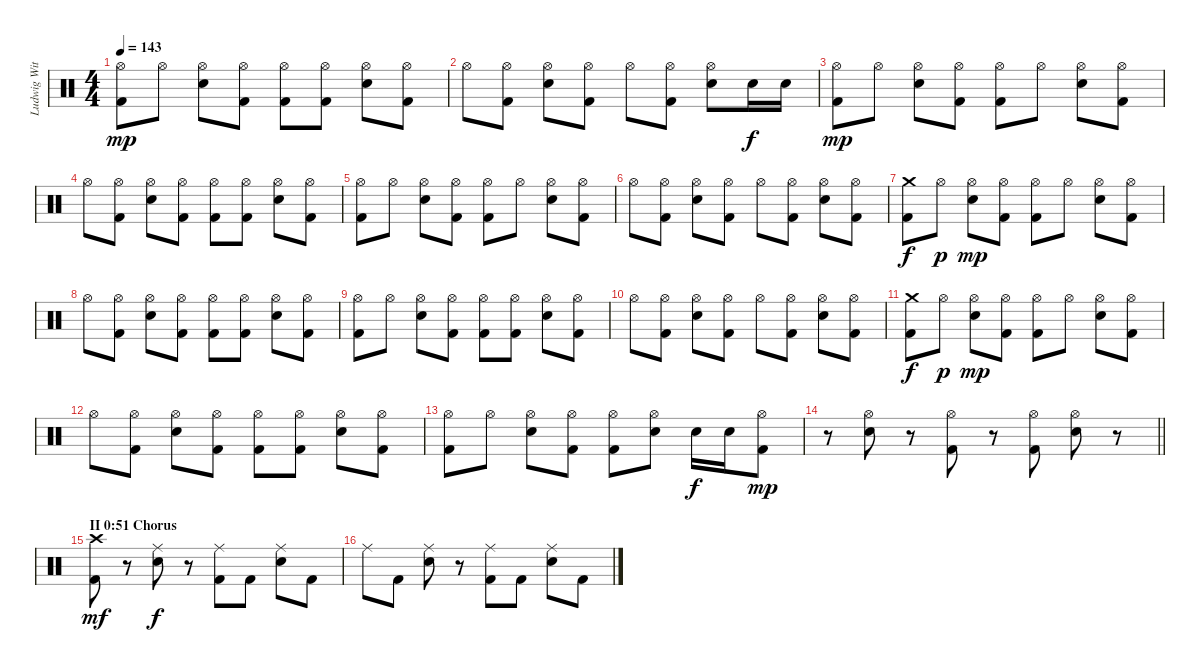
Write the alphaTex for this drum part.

\track ("Ludwig Witt (Drums)" "Ludwig Wit") {instrument percussion}
\staff {score}
\articulation defaults
\ts (4 4)
\tempo 143
\clef neutral
\ks c
("Hi-Hat (open)" "Kick (hit) 2").8{dy mp} "Hi-Hat (open)".8 ("Hi-Hat (open)" "Electric Snare (hit)").8 ("Hi-Hat (open)" "Kick (hit) 2").8 ("Hi-Hat (open)" "Kick (hit) 2").8 ("Hi-Hat (open)" "Kick (hit) 2").8 ("Hi-Hat (open)" "Electric Snare (hit)").8 ("Hi-Hat (open)" "Kick (hit) 2").8 |
"Hi-Hat (open)".8 ("Hi-Hat (open)" "Kick (hit) 2").8 ("Hi-Hat (open)" "Electric Snare (hit)").8 ("Hi-Hat (open)" "Kick (hit) 2").8 "Hi-Hat (open)".8 ("Hi-Hat (open)" "Kick (hit) 2").8 ("Hi-Hat (open)" "Electric Snare (hit)").8 "Electric Snare (hit)".16{dy f} "Electric Snare (hit)".16 |
("Hi-Hat (open)" "Kick (hit) 2").8{dy mp} "Hi-Hat (open)".8 ("Hi-Hat (open)" "Electric Snare (hit)").8 ("Hi-Hat (open)" "Kick (hit) 2").8 ("Hi-Hat (open)" "Kick (hit) 2").8 "Hi-Hat (open)".8 ("Hi-Hat (open)" "Electric Snare (hit)").8 ("Hi-Hat (open)" "Kick (hit) 2").8 |
"Hi-Hat (open)".8 ("Hi-Hat (open)" "Kick (hit) 2").8 ("Hi-Hat (open)" "Electric Snare (hit)").8 ("Hi-Hat (open)" "Kick (hit) 2").8 ("Hi-Hat (open)" "Kick (hit) 2").8 ("Hi-Hat (open)" "Kick (hit) 2").8 ("Hi-Hat (open)" "Electric Snare (hit)").8 ("Hi-Hat (open)" "Kick (hit) 2").8 |
("Hi-Hat (open)" "Kick (hit) 2").8 "Hi-Hat (open)".8 ("Hi-Hat (open)" "Electric Snare (hit)").8 ("Hi-Hat (open)" "Kick (hit) 2").8 ("Hi-Hat (open)" "Kick (hit) 2").8 "Hi-Hat (open)".8 ("Hi-Hat (open)" "Electric Snare (hit)").8 ("Hi-Hat (open)" "Kick (hit) 2").8 |
"Hi-Hat (open)".8 ("Hi-Hat (open)" "Kick (hit) 2").8 ("Hi-Hat (open)" "Electric Snare (hit)").8 ("Hi-Hat (open)" "Kick (hit) 2").8 "Hi-Hat (open)".8 ("Hi-Hat (open)" "Kick (hit) 2").8 ("Hi-Hat (open)" "Electric Snare (hit)").8 ("Hi-Hat (open)" "Kick (hit) 2").8 |
("Crash medium (hit)" "Kick (hit) 2").8{dy f} "Hi-Hat (open)".8{dy p} ("Hi-Hat (open)" "Electric Snare (hit)").8{dy mp} ("Hi-Hat (open)" "Kick (hit) 2").8 ("Hi-Hat (open)" "Kick (hit) 2").8 "Hi-Hat (open)".8 ("Hi-Hat (open)" "Electric Snare (hit)").8 ("Hi-Hat (open)" "Kick (hit) 2").8 |
"Hi-Hat (open)".8 ("Hi-Hat (open)" "Kick (hit) 2").8 ("Hi-Hat (open)" "Electric Snare (hit)").8 ("Hi-Hat (open)" "Kick (hit) 2").8 ("Hi-Hat (open)" "Kick (hit) 2").8 ("Hi-Hat (open)" "Kick (hit) 2").8 ("Hi-Hat (open)" "Electric Snare (hit)").8 ("Hi-Hat (open)" "Kick (hit) 2").8 |
("Hi-Hat (open)" "Kick (hit) 2").8 "Hi-Hat (open)".8 ("Hi-Hat (open)" "Electric Snare (hit)").8 ("Hi-Hat (open)" "Kick (hit) 2").8 ("Hi-Hat (open)" "Kick (hit) 2").8 ("Hi-Hat (open)" "Kick (hit) 2").8 ("Hi-Hat (open)" "Electric Snare (hit)").8 ("Hi-Hat (open)" "Kick (hit) 2").8 |
"Hi-Hat (open)".8 ("Hi-Hat (open)" "Kick (hit) 2").8 ("Hi-Hat (open)" "Electric Snare (hit)").8 ("Hi-Hat (open)" "Kick (hit) 2").8 "Hi-Hat (open)".8 ("Hi-Hat (open)" "Kick (hit) 2").8 ("Hi-Hat (open)" "Electric Snare (hit)").8 ("Hi-Hat (open)" "Kick (hit) 2").8 |
("Crash medium (hit)" "Kick (hit) 2").8{dy f} "Hi-Hat (open)".8{dy p} ("Hi-Hat (open)" "Electric Snare (hit)").8{dy mp} ("Hi-Hat (open)" "Kick (hit) 2").8 ("Hi-Hat (open)" "Kick (hit) 2").8 "Hi-Hat (open)".8 ("Hi-Hat (open)" "Electric Snare (hit)").8 ("Hi-Hat (open)" "Kick (hit) 2").8 |
"Hi-Hat (open)".8 ("Hi-Hat (open)" "Kick (hit) 2").8 ("Hi-Hat (open)" "Electric Snare (hit)").8 ("Hi-Hat (open)" "Kick (hit) 2").8 ("Hi-Hat (open)" "Kick (hit) 2").8 ("Hi-Hat (open)" "Kick (hit) 2").8 ("Hi-Hat (open)" "Electric Snare (hit)").8 ("Hi-Hat (open)" "Kick (hit) 2").8 |
("Hi-Hat (open)" "Kick (hit) 2").8 "Hi-Hat (open)".8 ("Hi-Hat (open)" "Electric Snare (hit)").8 ("Hi-Hat (open)" "Kick (hit) 2").8 ("Hi-Hat (open)" "Kick (hit) 2").8 ("Hi-Hat (open)" "Electric Snare (hit)").8 "Electric Snare (hit)".16{dy f} "Electric Snare (hit)".16 ("Hi-Hat (open)" "Kick (hit) 2").8{dy mp} |
\barLineRight lightlight
r.8 ("Hi-Hat (open)" "Electric Snare (hit)").8 r.8 ("Hi-Hat (open)" "Kick (hit) 2").8 r.8 ("Hi-Hat (open)" "Kick (hit) 2").8 ("Hi-Hat (open)" "Electric Snare (hit)").8 r.8 |
\section ("" "II 0:51 Chorus")
("Crash high (hit)" "Kick (hit) 2").8{dy mf} r.8 ("Ride (middle)" "Electric Snare (hit)").8{dy f} r.8 ("Ride (middle)" "Kick (hit) 2").8 "Kick (hit) 2".8 ("Ride (middle)" "Electric Snare (hit)").8 "Kick (hit) 2".8 |
"Ride (middle)".8 "Kick (hit) 2".8 ("Ride (middle)" "Electric Snare (hit)").8 r.8 ("Ride (middle)" "Kick (hit) 2").8 "Kick (hit) 2".8 ("Ride (middle)" "Electric Snare (hit)").8 "Kick (hit) 2".8
